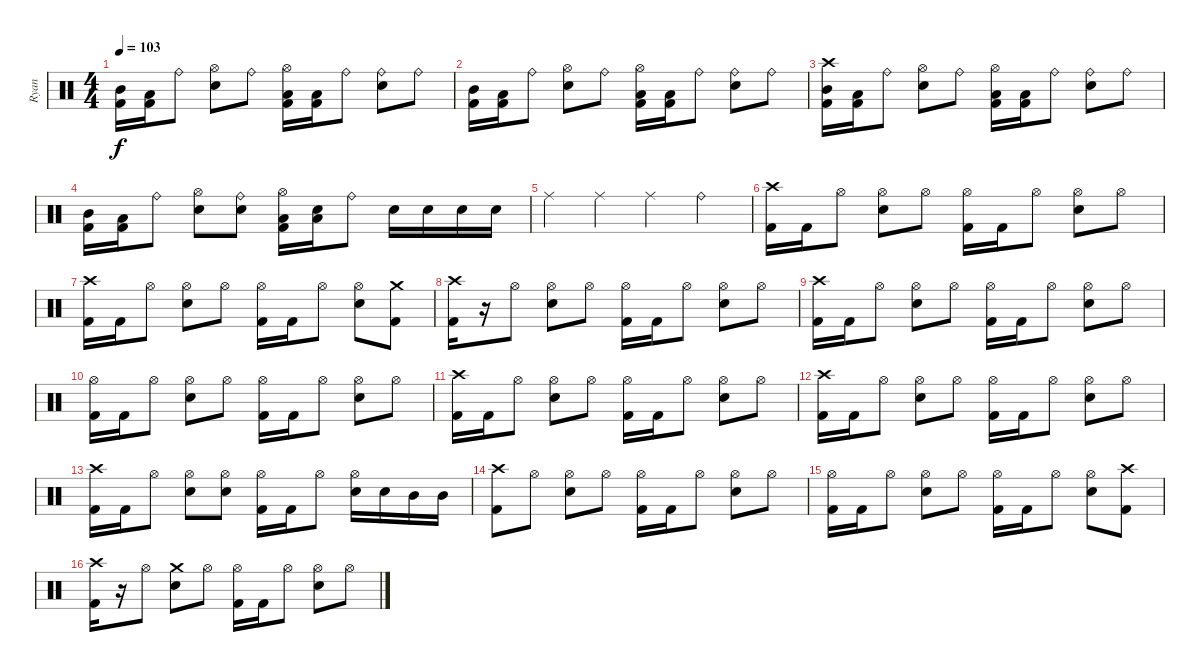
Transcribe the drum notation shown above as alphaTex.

\track ("Ryan" "Ryan") {instrument percussion}
\staff {score}
\articulation defaults
\ts (4 4)
\tempo 103
\clef neutral
\ks c
("Mid Tom (hit)" "Kick (hit) 2").16{dy f} ("Low Tom (hit)" "Kick (hit) 2").16 "Ride (bell)".8 ("Hi-Hat (open)" "Electric Snare (hit)").8 "Ride (bell)".8 ("Hi-Hat (open)" "Low Tom (hit)" "Kick (hit) 2").16 ("Low Tom (hit)" "Kick (hit) 2").16 "Ride (bell)".8 ("Ride (bell)" "Electric Snare (hit)").8 "Ride (bell)".8 |
("Mid Tom (hit)" "Kick (hit) 2").16 ("Low Tom (hit)" "Kick (hit) 2").16 "Ride (bell)".8 ("Hi-Hat (open)" "Electric Snare (hit)").8 "Ride (bell)".8 ("Hi-Hat (open)" "Low Tom (hit)" "Kick (hit) 2").16 ("Low Tom (hit)" "Kick (hit) 2").16 "Ride (bell)".8 ("Ride (bell)" "Electric Snare (hit)").8 "Ride (bell)".8 |
("Crash high (hit)" "Mid Tom (hit)" "Kick (hit) 2").16 ("Low Tom (hit)" "Kick (hit) 2").16 "Ride (bell)".8 ("Hi-Hat (open)" "Electric Snare (hit)").8 "Ride (bell)".8 ("Hi-Hat (open)" "Low Tom (hit)" "Kick (hit) 2").16 ("Low Tom (hit)" "Kick (hit) 2").16 "Ride (bell)".8 ("Ride (bell)" "Electric Snare (hit)").8 "Ride (bell)".8 |
("Mid Tom (hit)" "Kick (hit) 2").16 ("Low Tom (hit)" "Kick (hit) 2").16 "Ride (bell)".8 ("Hi-Hat (open)" "Electric Snare (hit)").8 ("Ride (bell)" "Electric Snare (hit)").8 ("Hi-Hat (open)" "Low Tom (hit)" "Kick (hit) 2").16 ("Low Tom (hit)" "Electric Snare (hit)").16 "Ride (bell)".8 "Electric Snare (hit)".16 "Electric Snare (hit)".16 "Electric Snare (hit)".16 "Electric Snare (hit)".16 |
"Ride (middle)".4 "Ride (middle)".4 "Ride (middle)".4 "Ride (bell)".4 |
("Crash high (hit)" "Kick (hit) 2").16 "Kick (hit) 2".16 "Hi-Hat (open)".8 ("Hi-Hat (open)" "Electric Snare (hit)").8 "Hi-Hat (open)".8 ("Hi-Hat (open)" "Kick (hit) 2").16 "Kick (hit) 2".16 "Hi-Hat (open)".8 ("Hi-Hat (open)" "Electric Snare (hit)").8 "Hi-Hat (open)".8 |
("Crash high (hit)" "Kick (hit) 2").16 "Kick (hit) 2".16 "Hi-Hat (open)".8 ("Hi-Hat (open)" "Electric Snare (hit)").8 "Hi-Hat (open)".8 ("Hi-Hat (open)" "Kick (hit) 2").16 "Kick (hit) 2".16 "Hi-Hat (open)".8 ("Hi-Hat (open)" "Electric Snare (hit)").8 ("Crash medium (hit)" "Kick (hit) 2").8 |
("Crash high (hit)" "Kick (hit) 2").16 r.16 "Hi-Hat (open)".8 ("Hi-Hat (open)" "Electric Snare (hit)").8 "Hi-Hat (open)".8 ("Hi-Hat (open)" "Kick (hit) 2").16 "Kick (hit) 2".16 "Hi-Hat (open)".8 ("Hi-Hat (open)" "Electric Snare (hit)").8 "Hi-Hat (open)".8 |
("Crash high (hit)" "Kick (hit) 2").16 "Kick (hit) 2".16 "Hi-Hat (open)".8 ("Hi-Hat (open)" "Electric Snare (hit)").8 "Hi-Hat (open)".8 ("Hi-Hat (open)" "Kick (hit) 2").16 "Kick (hit) 2".16 "Hi-Hat (open)".8 ("Hi-Hat (open)" "Electric Snare (hit)").8 "Hi-Hat (open)".8 |
("Hi-Hat (open)" "Kick (hit) 2").16 "Kick (hit) 2".16 "Hi-Hat (open)".8 ("Hi-Hat (open)" "Electric Snare (hit)").8 "Hi-Hat (open)".8 ("Hi-Hat (open)" "Kick (hit) 2").16 "Kick (hit) 2".16 "Hi-Hat (open)".8 ("Hi-Hat (open)" "Electric Snare (hit)").8 "Hi-Hat (open)".8 |
("Crash high (hit)" "Kick (hit) 2").16 "Kick (hit) 2".16 "Hi-Hat (open)".8 ("Hi-Hat (open)" "Electric Snare (hit)").8 "Hi-Hat (open)".8 ("Hi-Hat (open)" "Kick (hit) 2").16 "Kick (hit) 2".16 "Hi-Hat (open)".8 ("Hi-Hat (open)" "Electric Snare (hit)").8 "Hi-Hat (open)".8 |
("Crash high (hit)" "Kick (hit) 2").16 "Kick (hit) 2".16 "Hi-Hat (open)".8 ("Hi-Hat (open)" "Electric Snare (hit)").8 "Hi-Hat (open)".8 ("Hi-Hat (open)" "Kick (hit) 2").16 "Kick (hit) 2".16 "Hi-Hat (open)".8 ("Hi-Hat (open)" "Electric Snare (hit)").8 "Hi-Hat (open)".8 |
("Crash high (hit)" "Kick (hit) 2").16 "Kick (hit) 2".16 "Hi-Hat (open)".8 ("Hi-Hat (open)" "Electric Snare (hit)").8 ("Hi-Hat (open)" "Electric Snare (hit)").8 ("Hi-Hat (open)" "Kick (hit) 2").16 "Kick (hit) 2".16 "Hi-Hat (open)".8 ("Hi-Hat (open)" "Electric Snare (hit)").16 "Electric Snare (hit)".16 "Mid Tom (hit)".16 "Mid Tom (hit)".16 |
("Crash high (hit)" "Kick (hit) 2").8 "Hi-Hat (open)".8 ("Hi-Hat (open)" "Electric Snare (hit)").8 "Hi-Hat (open)".8 ("Hi-Hat (open)" "Kick (hit) 2").16 "Kick (hit) 2".16 "Hi-Hat (open)".8 ("Hi-Hat (open)" "Electric Snare (hit)").8 "Hi-Hat (open)".8 |
("Hi-Hat (open)" "Kick (hit) 2").16 "Kick (hit) 2".16 "Hi-Hat (open)".8 ("Hi-Hat (open)" "Electric Snare (hit)").8 "Hi-Hat (open)".8 ("Hi-Hat (open)" "Kick (hit) 2").16 "Kick (hit) 2".16 "Hi-Hat (open)".8 ("Hi-Hat (open)" "Electric Snare (hit)").8 ("Crash high (hit)" "Kick (hit) 2").8 |
("Crash high (hit)" "Kick (hit) 2").16 r.16 "Hi-Hat (open)".8 ("Crash medium (hit)" "Electric Snare (hit)").8 "Hi-Hat (open)".8 ("Hi-Hat (open)" "Kick (hit) 2").16 "Kick (hit) 2".16 "Hi-Hat (open)".8 ("Hi-Hat (open)" "Electric Snare (hit)").8 "Hi-Hat (open)".8
